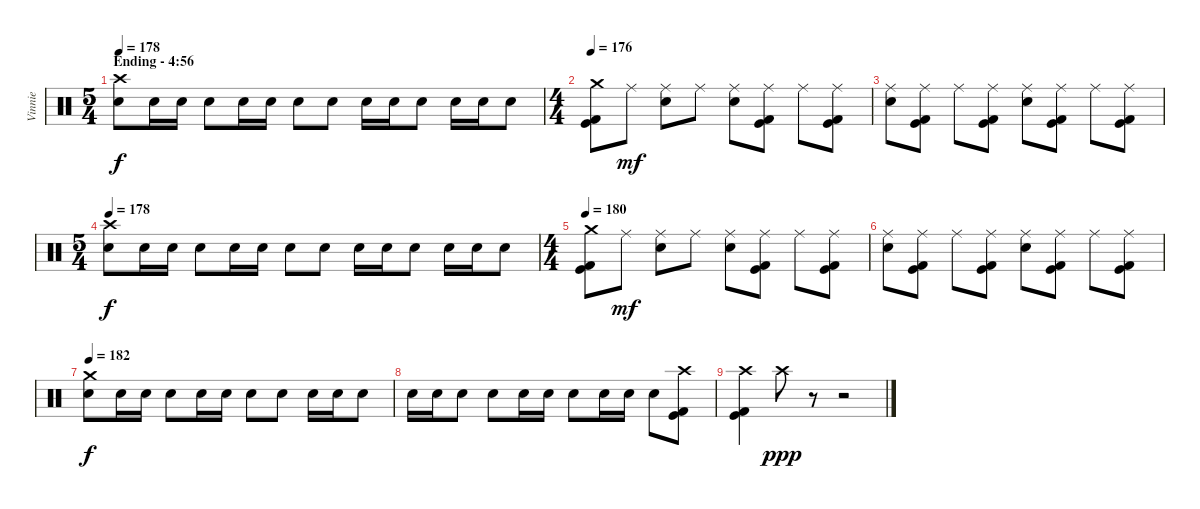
\track ("Vinnie" "Vinnie") {instrument percussion}
\staff {score}
\articulation defaults
\ts (5 4)
\section ("" "Ending - 4:56")
\tempo 178
\clef neutral
\ks c
("Crash high (hit)" "Electric Snare (hit)").8{dy f} "Electric Snare (hit)".16 "Electric Snare (hit)".16 "Electric Snare (hit)".8 "Electric Snare (hit)".16 "Electric Snare (hit)".16 "Electric Snare (hit)".8 "Electric Snare (hit)".8 "Electric Snare (hit)".16 "Electric Snare (hit)".16 "Electric Snare (hit)".8 "Electric Snare (hit)".16 "Electric Snare (hit)".16 "Electric Snare (hit)".8 |
\ts (4 4)
\tempo 176
("Crash medium (hit)" "Kick (hit)" "Kick (hit) 2").8 "Ride (middle)".8{dy mf} ("Ride (middle)" "Electric Snare (hit)").8 "Ride (middle)".8 ("Ride (middle)" "Electric Snare (hit)").8 ("Ride (middle)" "Kick (hit)" "Kick (hit) 2").8 "Ride (middle)".8 ("Ride (middle)" "Kick (hit)" "Kick (hit) 2").8 |
("Ride (middle)" "Electric Snare (hit)").8 ("Ride (middle)" "Kick (hit)" "Kick (hit) 2").8 "Ride (middle)".8 ("Ride (middle)" "Kick (hit)" "Kick (hit) 2").8 ("Ride (middle)" "Electric Snare (hit)").8 ("Ride (middle)" "Kick (hit)" "Kick (hit) 2").8 "Ride (middle)".8 ("Ride (middle)" "Kick (hit)" "Kick (hit) 2").8 |
\ts (5 4)
\tempo 178
("Crash high (hit)" "Electric Snare (hit)").8{dy f} "Electric Snare (hit)".16 "Electric Snare (hit)".16 "Electric Snare (hit)".8 "Electric Snare (hit)".16 "Electric Snare (hit)".16 "Electric Snare (hit)".8 "Electric Snare (hit)".8 "Electric Snare (hit)".16 "Electric Snare (hit)".16 "Electric Snare (hit)".8 "Electric Snare (hit)".16 "Electric Snare (hit)".16 "Electric Snare (hit)".8 |
\ts (4 4)
\tempo 180
("Crash medium (hit)" "Kick (hit)" "Kick (hit) 2").8 "Ride (middle)".8{dy mf} ("Ride (middle)" "Electric Snare (hit)").8 "Ride (middle)".8 ("Ride (middle)" "Electric Snare (hit)").8 ("Ride (middle)" "Kick (hit)" "Kick (hit) 2").8 "Ride (middle)".8 ("Ride (middle)" "Kick (hit)" "Kick (hit) 2").8 |
("Ride (middle)" "Electric Snare (hit)").8 ("Ride (middle)" "Kick (hit)" "Kick (hit) 2").8 "Ride (middle)".8 ("Ride (middle)" "Kick (hit)" "Kick (hit) 2").8 ("Ride (middle)" "Electric Snare (hit)").8 ("Ride (middle)" "Kick (hit)" "Kick (hit) 2").8 "Ride (middle)".8 ("Ride (middle)" "Kick (hit)" "Kick (hit) 2").8 |
\tempo 182
("Crash medium (hit)" "Electric Snare (hit)").8{dy f} "Electric Snare (hit)".16 "Electric Snare (hit)".16 "Electric Snare (hit)".8 "Electric Snare (hit)".16 "Electric Snare (hit)".16 "Electric Snare (hit)".8 "Electric Snare (hit)".8 "Electric Snare (hit)".16 "Electric Snare (hit)".16 "Electric Snare (hit)".8 |
"Electric Snare (hit)".16 "Electric Snare (hit)".16 "Electric Snare (hit)".8 "Electric Snare (hit)".8 "Electric Snare (hit)".16 "Electric Snare (hit)".16 "Electric Snare (hit)".8 "Electric Snare (hit)".16 "Electric Snare (hit)".16 "Electric Snare (hit)".8 ("Crash high (hit)" "Kick (hit)" "Kick (hit) 2").8 |
("Crash high (hit)" "Kick (hit)" "Kick (hit) 2").4 "Crash high (hit)".8{dy ppp} r.8 r.2
